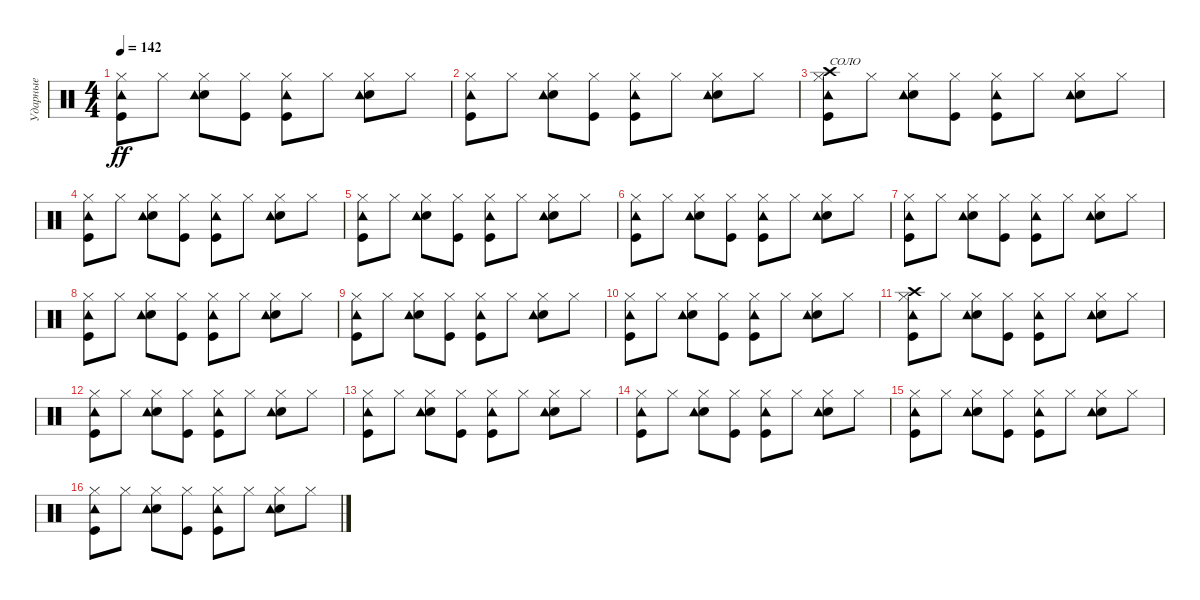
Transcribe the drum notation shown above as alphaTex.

\track ("Ударные" "Ударные") {instrument percussion}
\staff {score}
\articulation defaults
\ts (4 4)
\tempo 142
\clef neutral
\ks c
("Hi-Hat (closed)" "Kick (hit)" "Tambourine (hit)").8{dy ff} "Hi-Hat (closed)".8 ("Hi-Hat (closed)" "Electric Snare (hit)" "Tambourine (hit)").8 ("Hi-Hat (closed)" "Kick (hit)").8 ("Hi-Hat (closed)" "Tambourine (hit)" "Kick (hit)").8 "Hi-Hat (closed)".8 ("Hi-Hat (closed)" "Electric Snare (hit)" "Tambourine (hit)").8 "Hi-Hat (closed)".8 |
("Hi-Hat (closed)" "Kick (hit)" "Tambourine (hit)").8 "Hi-Hat (closed)".8 ("Hi-Hat (closed)" "Electric Snare (hit)" "Tambourine (hit)").8 ("Hi-Hat (closed)" "Kick (hit)").8 ("Hi-Hat (closed)" "Tambourine (hit)" "Kick (hit)").8 "Hi-Hat (closed)".8 ("Hi-Hat (closed)" "Electric Snare (hit)" "Tambourine (hit)").8 "Hi-Hat (closed)".8 |
("Crash high (hit)" "Hi-Hat (closed)" "Kick (hit)" "Tambourine (hit)").8{txt "СОЛО"} "Hi-Hat (closed)".8 ("Hi-Hat (closed)" "Electric Snare (hit)" "Tambourine (hit)").8 ("Hi-Hat (closed)" "Kick (hit)").8 ("Hi-Hat (closed)" "Tambourine (hit)" "Kick (hit)").8 "Hi-Hat (closed)".8 ("Hi-Hat (closed)" "Electric Snare (hit)" "Tambourine (hit)").8 "Hi-Hat (closed)".8 |
("Hi-Hat (closed)" "Kick (hit)" "Tambourine (hit)").8 "Hi-Hat (closed)".8 ("Hi-Hat (closed)" "Electric Snare (hit)" "Tambourine (hit)").8 ("Hi-Hat (closed)" "Kick (hit)").8 ("Hi-Hat (closed)" "Tambourine (hit)" "Kick (hit)").8 "Hi-Hat (closed)".8 ("Hi-Hat (closed)" "Electric Snare (hit)" "Tambourine (hit)").8 "Hi-Hat (closed)".8 |
("Hi-Hat (closed)" "Kick (hit)" "Tambourine (hit)").8 "Hi-Hat (closed)".8 ("Hi-Hat (closed)" "Electric Snare (hit)" "Tambourine (hit)").8 ("Hi-Hat (closed)" "Kick (hit)").8 ("Hi-Hat (closed)" "Tambourine (hit)" "Kick (hit)").8 "Hi-Hat (closed)".8 ("Hi-Hat (closed)" "Electric Snare (hit)" "Tambourine (hit)").8 "Hi-Hat (closed)".8 |
("Hi-Hat (closed)" "Kick (hit)" "Tambourine (hit)").8 "Hi-Hat (closed)".8 ("Hi-Hat (closed)" "Electric Snare (hit)" "Tambourine (hit)").8 ("Hi-Hat (closed)" "Kick (hit)").8 ("Hi-Hat (closed)" "Tambourine (hit)" "Kick (hit)").8 "Hi-Hat (closed)".8 ("Hi-Hat (closed)" "Electric Snare (hit)" "Tambourine (hit)").8 "Hi-Hat (closed)".8 |
("Hi-Hat (closed)" "Kick (hit)" "Tambourine (hit)").8 "Hi-Hat (closed)".8 ("Hi-Hat (closed)" "Electric Snare (hit)" "Tambourine (hit)").8 ("Hi-Hat (closed)" "Kick (hit)").8 ("Hi-Hat (closed)" "Tambourine (hit)" "Kick (hit)").8 "Hi-Hat (closed)".8 ("Hi-Hat (closed)" "Electric Snare (hit)" "Tambourine (hit)").8 "Hi-Hat (closed)".8 |
("Hi-Hat (closed)" "Kick (hit)" "Tambourine (hit)").8 "Hi-Hat (closed)".8 ("Hi-Hat (closed)" "Electric Snare (hit)" "Tambourine (hit)").8 ("Hi-Hat (closed)" "Kick (hit)").8 ("Hi-Hat (closed)" "Tambourine (hit)" "Kick (hit)").8 "Hi-Hat (closed)".8 ("Hi-Hat (closed)" "Electric Snare (hit)" "Tambourine (hit)").8 "Hi-Hat (closed)".8 |
("Hi-Hat (closed)" "Kick (hit)" "Tambourine (hit)").8 "Hi-Hat (closed)".8 ("Hi-Hat (closed)" "Electric Snare (hit)" "Tambourine (hit)").8 ("Hi-Hat (closed)" "Kick (hit)").8 ("Hi-Hat (closed)" "Tambourine (hit)" "Kick (hit)").8 "Hi-Hat (closed)".8 ("Hi-Hat (closed)" "Electric Snare (hit)" "Tambourine (hit)").8 "Hi-Hat (closed)".8 |
("Hi-Hat (closed)" "Kick (hit)" "Tambourine (hit)").8 "Hi-Hat (closed)".8 ("Hi-Hat (closed)" "Electric Snare (hit)" "Tambourine (hit)").8 ("Hi-Hat (closed)" "Kick (hit)").8 ("Hi-Hat (closed)" "Tambourine (hit)" "Kick (hit)").8 "Hi-Hat (closed)".8 ("Hi-Hat (closed)" "Electric Snare (hit)" "Tambourine (hit)").8 "Hi-Hat (closed)".8 |
("Crash high (hit)" "Hi-Hat (closed)" "Kick (hit)" "Tambourine (hit)").8 "Hi-Hat (closed)".8 ("Hi-Hat (closed)" "Electric Snare (hit)" "Tambourine (hit)").8 ("Hi-Hat (closed)" "Kick (hit)").8 ("Hi-Hat (closed)" "Tambourine (hit)" "Kick (hit)").8 "Hi-Hat (closed)".8 ("Hi-Hat (closed)" "Electric Snare (hit)" "Tambourine (hit)").8 "Hi-Hat (closed)".8 |
("Hi-Hat (closed)" "Kick (hit)" "Tambourine (hit)").8 "Hi-Hat (closed)".8 ("Hi-Hat (closed)" "Electric Snare (hit)" "Tambourine (hit)").8 ("Hi-Hat (closed)" "Kick (hit)").8 ("Hi-Hat (closed)" "Tambourine (hit)" "Kick (hit)").8 "Hi-Hat (closed)".8 ("Hi-Hat (closed)" "Electric Snare (hit)" "Tambourine (hit)").8 "Hi-Hat (closed)".8 |
("Hi-Hat (closed)" "Kick (hit)" "Tambourine (hit)").8 "Hi-Hat (closed)".8 ("Hi-Hat (closed)" "Electric Snare (hit)" "Tambourine (hit)").8 ("Hi-Hat (closed)" "Kick (hit)").8 ("Hi-Hat (closed)" "Tambourine (hit)" "Kick (hit)").8 "Hi-Hat (closed)".8 ("Hi-Hat (closed)" "Electric Snare (hit)" "Tambourine (hit)").8 "Hi-Hat (closed)".8 |
("Hi-Hat (closed)" "Kick (hit)" "Tambourine (hit)").8 "Hi-Hat (closed)".8 ("Hi-Hat (closed)" "Electric Snare (hit)" "Tambourine (hit)").8 ("Hi-Hat (closed)" "Kick (hit)").8 ("Hi-Hat (closed)" "Tambourine (hit)" "Kick (hit)").8 "Hi-Hat (closed)".8 ("Hi-Hat (closed)" "Electric Snare (hit)" "Tambourine (hit)").8 "Hi-Hat (closed)".8 |
("Hi-Hat (closed)" "Kick (hit)" "Tambourine (hit)").8 "Hi-Hat (closed)".8 ("Hi-Hat (closed)" "Electric Snare (hit)" "Tambourine (hit)").8 ("Hi-Hat (closed)" "Kick (hit)").8 ("Hi-Hat (closed)" "Tambourine (hit)" "Kick (hit)").8 "Hi-Hat (closed)".8 ("Hi-Hat (closed)" "Electric Snare (hit)" "Tambourine (hit)").8 "Hi-Hat (closed)".8 |
("Hi-Hat (closed)" "Kick (hit)" "Tambourine (hit)").8 "Hi-Hat (closed)".8 ("Hi-Hat (closed)" "Electric Snare (hit)" "Tambourine (hit)").8 ("Hi-Hat (closed)" "Kick (hit)").8 ("Hi-Hat (closed)" "Tambourine (hit)" "Kick (hit)").8 "Hi-Hat (closed)".8 ("Hi-Hat (closed)" "Electric Snare (hit)" "Tambourine (hit)").8 "Hi-Hat (closed)".8
